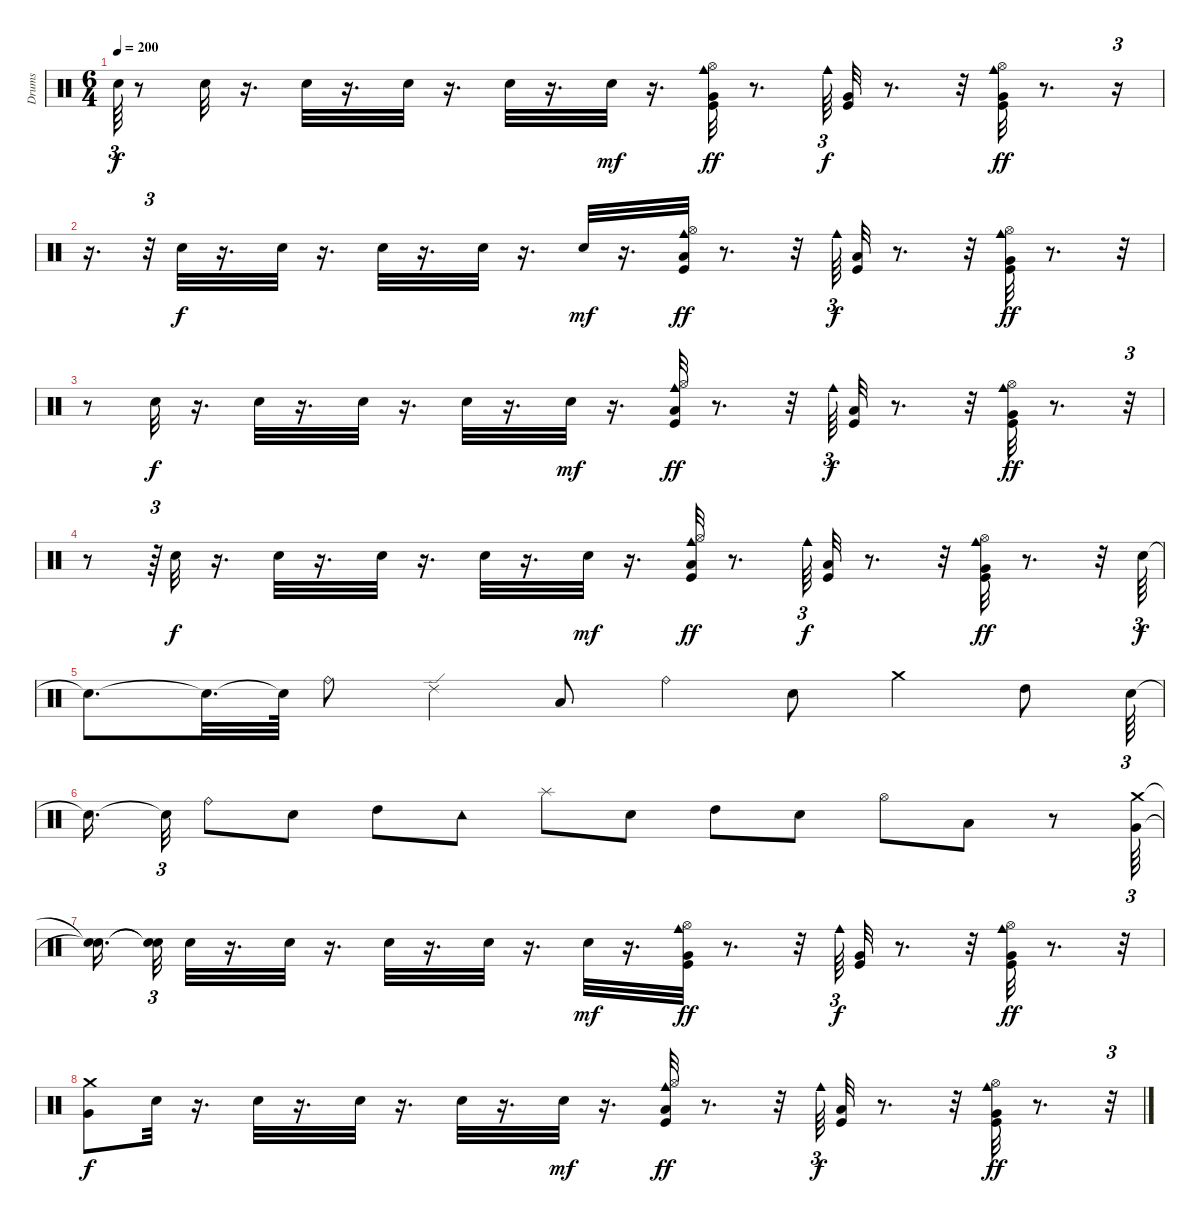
\track ("Drums" "Drums") {instrument percussion}
\staff {score}
\articulation defaults
\ts (6 4)
\tempo 200
\clef neutral
\ks c "Snare (hit)"{t}.64{tu (3 2) dy f}
r.8 "Snare (hit) 2".32 r.16{d} "Snare (hit) 2".32 r.16{d} "Snare (hit) 2".32 r.16{d} "Snare (hit) 2".32 r.16{d} "Electric Snare (hit)".32{dy mf} r.16{d} ("Very Low Tom (hit)" "Kick (hit)" "Hi-Hat (open)" "Cowbell medium (hit)").32{dy ff} r.8{d} "Cowbell medium (hit)".64{tu (3 2) dy f} ("Very Low Tom (hit)" "Kick (hit)").32 r.8{d} r.32 ("Very Low Tom (hit)" "Hi-Hat (open)" "Kick (hit)" "Cowbell medium (hit)").32{dy ff} r.8{d} r.16{tu (3 2)} |
r.16{d} r.32{tu (3 2)} "Snare (hit) 2".32{dy f} r.16{d} "Snare (hit) 2".32 r.16{d} "Snare (hit) 2".32 r.16{d} "Snare (hit) 2".32 r.16{d} "Snare (hit) 2".32{dy mf} r.16{d} ("Kick (hit)" "Hi-Hat (open)" "Cowbell medium (hit)" "Low Floor Tom (hit)").32{dy ff} r.8{d} r.32 "Cowbell medium (hit)".64{tu (3 2) dy f} ("Kick (hit)" "Low Floor Tom (hit)").32 r.8{d} r.32 ("Hi-Hat (open)" "Kick (hit)" "Cowbell medium (hit)" "Very Low Tom (hit)").32{dy ff} r.8{d} r.32 |
r.8 "Snare (hit) 2".32{dy f} r.16{d} "Snare (hit) 2".32 r.16{d} "Snare (hit) 2".32 r.16{d} "Snare (hit) 2".32 r.16{d} "Snare (hit) 2".32{dy mf} r.16{d} ("Kick (hit)" "Hi-Hat (open)" "Cowbell medium (hit)" "Low Floor Tom (hit)").32{dy ff} r.8{d} r.32 "Cowbell medium (hit)".64{tu (3 2) dy f} ("Kick (hit)" "Low Floor Tom (hit)").32 r.8{d} r.32 ("Hi-Hat (open)" "Kick (hit)" "Cowbell medium (hit)" "Very Low Tom (hit)").32{dy ff} r.8{d} r.32{tu (3 2)} |
r.8 r.64{tu (3 2)} "Snare (hit) 2".32{dy f} r.16{d} "Snare (hit) 2".32 r.16{d} "Snare (hit) 2".32 r.16{d} "Snare (hit) 2".32 r.16{d} "Snare (hit) 2".32{dy mf} r.16{d} ("Kick (hit)" "Hi-Hat (open)" "Cowbell medium (hit)" "Low Floor Tom (hit)").32{dy ff} r.8{d} "Cowbell medium (hit)".64{tu (3 2) dy f} ("Kick (hit)" "Low Floor Tom (hit)").32 r.8{d} r.32 ("Hi-Hat (open)" "Kick (hit)" "Cowbell medium (hit)" "Very Low Tom (hit)").32{dy ff} r.8{d} r.32 "Electric Snare (hit)".64{tu (3 2) dy f} |
"Snare (hit)"{t}.8{d} "Snare (hit)"{t}.32{d} "Snare (hit)"{t}.64 "Ride (bell)".8 "Ride (edge) 2".4 "Low Tom (hit)".8 "Ride (bell)".4 "Electric Snare (hit)".8 "Crash medium (hit)".4 "High Tom (hit)".8 "Snare (hit) 2".64{tu (3 2)} |
"Snare (hit)"{t}.16{d} "Snare (hit)"{t}.32{tu (3 2)} "Ride (bell)".8 "Snare (hit) 2".8 "High Tom (hit)".8 "Tambourine (hit)".8 "Splash (hit)".8 "Snare (hit) 2".8 "High Tom (hit)".8 "Snare (hit) 2".8 "Hi-Hat (open)".8 "Low Tom (hit)".8 r.8 ("Very Low Tom (hit)" "Crash medium (hit)").64{tu (3 2)} |
("Snare (hit)"{t} "Snare (hit)"{t}).16{d} ("Snare (hit)"{t} "Snare (hit)"{t}).32{tu (3 2)} "Snare (hit) 2".32 r.16{d} "Snare (hit) 2".32 r.16{d} "Snare (hit) 2".32 r.16{d} "Snare (hit) 2".32 r.16{d} "Electric Snare (hit)".32{dy mf} r.16{d} ("Very Low Tom (hit)" "Kick (hit)" "Hi-Hat (open)" "Cowbell medium (hit)").32{dy ff} r.8{d} r.32 "Cowbell medium (hit)".64{tu (3 2) dy f} ("Very Low Tom (hit)" "Kick (hit)").32 r.8{d} r.32 ("Very Low Tom (hit)" "Hi-Hat (open)" "Kick (hit)" "Cowbell medium (hit)").32{dy ff} r.8{d} r.32 |
("Very Low Tom (hit)" "Crash medium (hit)").8{dy f} "Snare (hit) 2".32 r.16{d} "Snare (hit) 2".32 r.16{d} "Snare (hit) 2".32 r.16{d} "Snare (hit) 2".32 r.16{d} "Snare (hit) 2".32{dy mf} r.16{d} ("Kick (hit)" "Hi-Hat (open)" "Cowbell medium (hit)" "Low Floor Tom (hit)").32{dy ff} r.8{d} r.32 "Cowbell medium (hit)".64{tu (3 2) dy f} ("Kick (hit)" "Low Floor Tom (hit)").32 r.8{d} r.32 ("Hi-Hat (open)" "Kick (hit)" "Cowbell medium (hit)" "Very Low Tom (hit)").32{dy ff} r.8{d} r.32{tu (3 2)}
